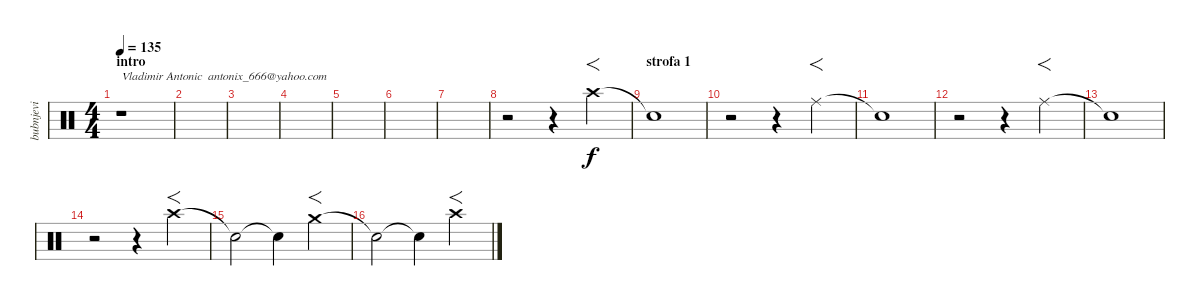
\track ("bubnjevi" "bubnjevi") {instrument percussion}
\staff {score}
\articulation defaults
\ts (4 4)
\section ("" "intro")
\tempo 135
\clef neutral
\ks c
r.1{txt "Vladimir Antonic  antonix_666@yahoo.com" dy f} |
|
|
|
|
|
|
r.2 r.4 "Crash high (hit)".4{f} |
\section ("" "strofa 1")
"Snare (hit)"{t}.1 |
r.2 r.4 "Ride (middle)".4{f} |
"Snare (hit)"{t}.1 |
r.2 r.4 "Ride (middle)".4{f} |
"Snare (hit)"{t}.1 |
r.2 r.4 "Crash high (hit)".4{f} |
"Snare (hit)"{t}.2 "Snare (hit)"{t}.4 "Crash medium (hit)".4{f} |
"Snare (hit)"{t}.2 "Snare (hit)"{t}.4 "Crash high (hit)".4{f}
